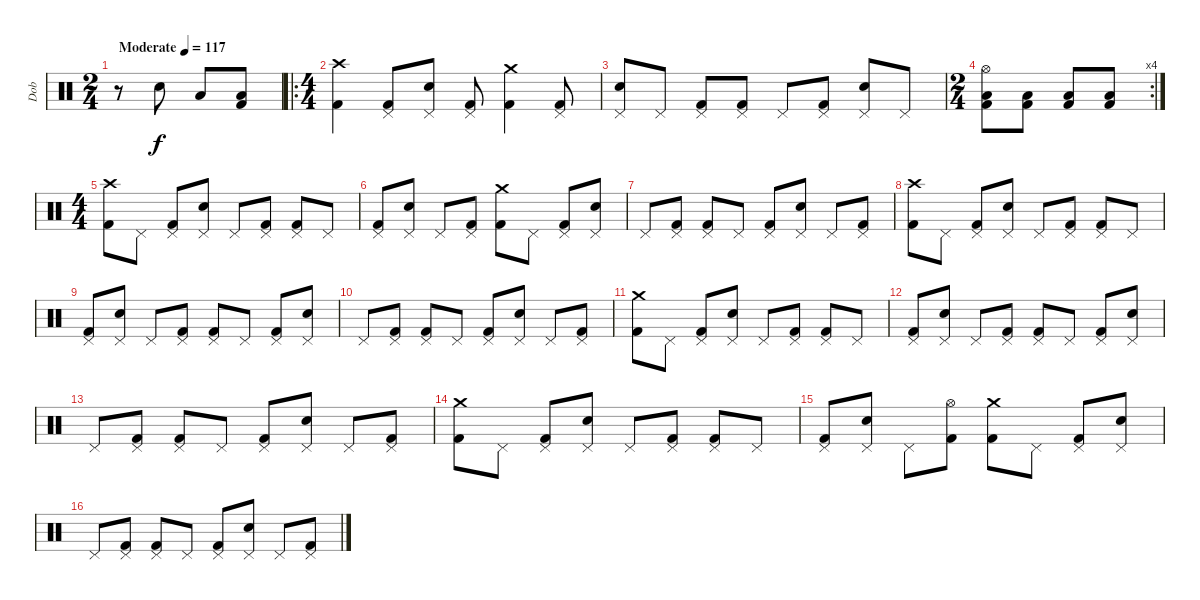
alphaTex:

\track ("Dob" "Dob") {instrument percussion}
\staff
\articulation defaults
\ts (2 4)
\tempo (117 "Moderate")
\clef neutral
\ks c
r.8{dy f} "Snare (hit) 2".8 "Low Tom (hit)".8 ("Low Floor Tom (hit)" "Kick (hit) 2").8 |
\ro
\ts (4 4)
("Crash high (hit)" "Kick (hit) 2").4 ("Pedal Hi-Hat (hit)" "Kick (hit) 2").8 ("Pedal Hi-Hat (hit)" "Snare (hit) 2").8 ("Pedal Hi-Hat (hit)" "Kick (hit) 2").8 ("Crash medium (hit)" "Kick (hit) 2").4 ("Pedal Hi-Hat (hit)" "Kick (hit) 2").8 |
("Pedal Hi-Hat (hit)" "Snare (hit) 2").8 "Pedal Hi-Hat (hit)".8 ("Pedal Hi-Hat (hit)" "Kick (hit) 2").8 ("Pedal Hi-Hat (hit)" "Kick (hit) 2").8 "Pedal Hi-Hat (hit)".8 ("Pedal Hi-Hat (hit)" "Kick (hit) 2").8 ("Pedal Hi-Hat (hit)" "Snare (hit) 2").8 "Pedal Hi-Hat (hit)".8 |
\rc 4
\ts (2 4)
("Hi-Hat (open)" "Low Floor Tom (hit)" "Kick (hit) 2").8 ("Low Floor Tom (hit)" "Kick (hit) 2").8 ("Low Floor Tom (hit)" "Kick (hit) 2").8 ("Low Floor Tom (hit)" "Kick (hit) 2").8 |
\ts (4 4)
("Crash high (hit)" "Kick (hit) 2").8 "Pedal Hi-Hat (hit)".8 ("Pedal Hi-Hat (hit)" "Kick (hit) 2").8 ("Pedal Hi-Hat (hit)" "Snare (hit) 2").8 "Pedal Hi-Hat (hit)".8 ("Pedal Hi-Hat (hit)" "Kick (hit) 2").8 ("Pedal Hi-Hat (hit)" "Kick (hit) 2").8 "Pedal Hi-Hat (hit)".8 |
("Pedal Hi-Hat (hit)" "Kick (hit) 2").8 ("Pedal Hi-Hat (hit)" "Snare (hit) 2").8 "Pedal Hi-Hat (hit)".8 ("Pedal Hi-Hat (hit)" "Kick (hit) 2").8 ("Crash medium (hit)" "Kick (hit) 2").8 "Pedal Hi-Hat (hit)".8 ("Pedal Hi-Hat (hit)" "Kick (hit) 2").8 ("Pedal Hi-Hat (hit)" "Snare (hit) 2").8 |
"Pedal Hi-Hat (hit)".8 ("Pedal Hi-Hat (hit)" "Kick (hit) 2").8 ("Pedal Hi-Hat (hit)" "Kick (hit) 2").8 "Pedal Hi-Hat (hit)".8 ("Pedal Hi-Hat (hit)" "Kick (hit) 2").8 ("Pedal Hi-Hat (hit)" "Snare (hit) 2").8 "Pedal Hi-Hat (hit)".8 ("Pedal Hi-Hat (hit)" "Kick (hit) 2").8 |
("Crash high (hit)" "Kick (hit) 2").8 "Pedal Hi-Hat (hit)".8 ("Pedal Hi-Hat (hit)" "Kick (hit) 2").8 ("Pedal Hi-Hat (hit)" "Snare (hit) 2").8 "Pedal Hi-Hat (hit)".8 ("Pedal Hi-Hat (hit)" "Kick (hit) 2").8 ("Pedal Hi-Hat (hit)" "Kick (hit) 2").8 "Pedal Hi-Hat (hit)".8 |
("Pedal Hi-Hat (hit)" "Kick (hit) 2").8 ("Pedal Hi-Hat (hit)" "Snare (hit) 2").8 "Pedal Hi-Hat (hit)".8 ("Pedal Hi-Hat (hit)" "Kick (hit) 2").8 ("Pedal Hi-Hat (hit)" "Kick (hit) 2").8 "Pedal Hi-Hat (hit)".8 ("Pedal Hi-Hat (hit)" "Kick (hit) 2").8 ("Pedal Hi-Hat (hit)" "Snare (hit) 2").8 |
"Pedal Hi-Hat (hit)".8 ("Pedal Hi-Hat (hit)" "Kick (hit) 2").8 ("Pedal Hi-Hat (hit)" "Kick (hit) 2").8 "Pedal Hi-Hat (hit)".8 ("Pedal Hi-Hat (hit)" "Kick (hit) 2").8 ("Pedal Hi-Hat (hit)" "Snare (hit) 2").8 "Pedal Hi-Hat (hit)".8 ("Pedal Hi-Hat (hit)" "Kick (hit) 2").8 |
("Crash medium (hit)" "Kick (hit) 2").8 "Pedal Hi-Hat (hit)".8 ("Pedal Hi-Hat (hit)" "Kick (hit) 2").8 ("Pedal Hi-Hat (hit)" "Snare (hit) 2").8 "Pedal Hi-Hat (hit)".8 ("Pedal Hi-Hat (hit)" "Kick (hit) 2").8 ("Pedal Hi-Hat (hit)" "Kick (hit) 2").8 "Pedal Hi-Hat (hit)".8 |
("Pedal Hi-Hat (hit)" "Kick (hit) 2").8 ("Pedal Hi-Hat (hit)" "Snare (hit) 2").8 "Pedal Hi-Hat (hit)".8 ("Pedal Hi-Hat (hit)" "Kick (hit) 2").8 ("Pedal Hi-Hat (hit)" "Kick (hit) 2").8 "Pedal Hi-Hat (hit)".8 ("Pedal Hi-Hat (hit)" "Kick (hit) 2").8 ("Pedal Hi-Hat (hit)" "Snare (hit) 2").8 |
"Pedal Hi-Hat (hit)".8 ("Pedal Hi-Hat (hit)" "Kick (hit) 2").8 ("Pedal Hi-Hat (hit)" "Kick (hit) 2").8 "Pedal Hi-Hat (hit)".8 ("Pedal Hi-Hat (hit)" "Kick (hit) 2").8 ("Pedal Hi-Hat (hit)" "Snare (hit) 2").8 "Pedal Hi-Hat (hit)".8 ("Pedal Hi-Hat (hit)" "Kick (hit) 2").8 |
("Crash medium (hit)" "Kick (hit) 2").8 "Pedal Hi-Hat (hit)".8 ("Pedal Hi-Hat (hit)" "Kick (hit) 2").8 ("Pedal Hi-Hat (hit)" "Snare (hit) 2").8 "Pedal Hi-Hat (hit)".8 ("Pedal Hi-Hat (hit)" "Kick (hit) 2").8 ("Pedal Hi-Hat (hit)" "Kick (hit) 2").8 "Pedal Hi-Hat (hit)".8 |
("Pedal Hi-Hat (hit)" "Kick (hit) 2").8 ("Pedal Hi-Hat (hit)" "Snare (hit) 2").8 "Pedal Hi-Hat (hit)".8 ("Hi-Hat (open)" "Kick (hit) 2").8 ("Crash medium (hit)" "Kick (hit) 2").8 "Pedal Hi-Hat (hit)".8 ("Pedal Hi-Hat (hit)" "Kick (hit) 2").8 ("Pedal Hi-Hat (hit)" "Snare (hit) 2").8 |
"Pedal Hi-Hat (hit)".8 ("Pedal Hi-Hat (hit)" "Kick (hit) 2").8 ("Pedal Hi-Hat (hit)" "Kick (hit) 2").8 "Pedal Hi-Hat (hit)".8 ("Pedal Hi-Hat (hit)" "Kick (hit) 2").8 ("Pedal Hi-Hat (hit)" "Snare (hit) 2").8 "Pedal Hi-Hat (hit)".8 ("Pedal Hi-Hat (hit)" "Kick (hit) 2").8
